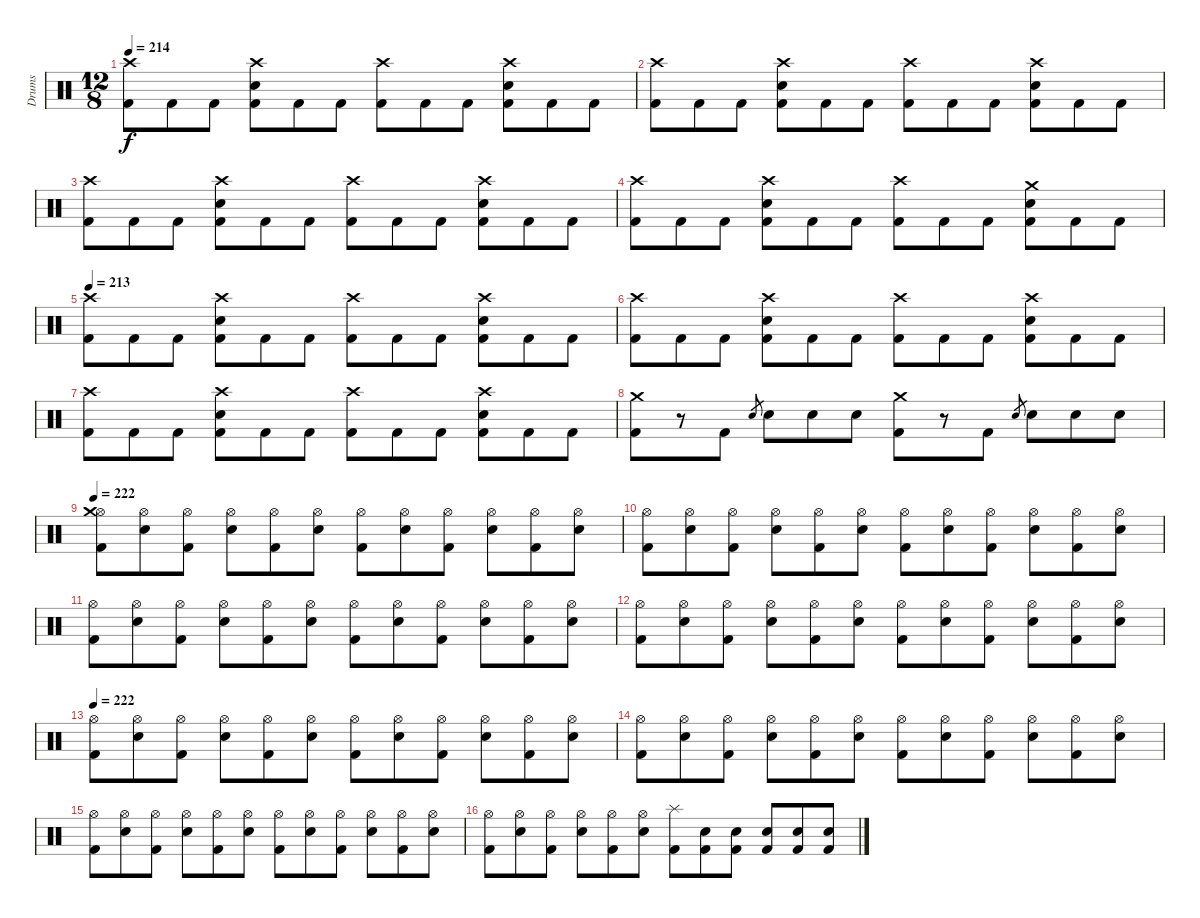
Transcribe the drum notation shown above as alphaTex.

\track ("Drums" "Drums") {instrument percussion}
\staff {score}
\articulation defaults
\ts (12 8)
\tempo 214
\clef neutral
\ks c
("Crash high (hit)" "Kick (hit) 2").8{dy f} "Kick (hit) 2".8 "Kick (hit) 2".8 ("Crash high (hit)" "Snare (hit) 2" "Kick (hit) 2").8 "Kick (hit) 2".8 "Kick (hit) 2".8 ("Crash high (hit)" "Kick (hit) 2").8 "Kick (hit) 2".8 "Kick (hit) 2".8 ("Crash high (hit)" "Snare (hit) 2" "Kick (hit) 2").8 "Kick (hit) 2".8 "Kick (hit) 2".8 |
("Crash high (hit)" "Kick (hit) 2").8 "Kick (hit) 2".8 "Kick (hit) 2".8 ("Crash high (hit)" "Snare (hit) 2" "Kick (hit) 2").8 "Kick (hit) 2".8 "Kick (hit) 2".8 ("Crash high (hit)" "Kick (hit) 2").8 "Kick (hit) 2".8 "Kick (hit) 2".8 ("Crash high (hit)" "Snare (hit) 2" "Kick (hit) 2").8 "Kick (hit) 2".8 "Kick (hit) 2".8 |
("Crash high (hit)" "Kick (hit) 2").8 "Kick (hit) 2".8 "Kick (hit) 2".8 ("Crash high (hit)" "Snare (hit) 2" "Kick (hit) 2").8 "Kick (hit) 2".8 "Kick (hit) 2".8 ("Crash high (hit)" "Kick (hit) 2").8 "Kick (hit) 2".8 "Kick (hit) 2".8 ("Crash high (hit)" "Snare (hit) 2" "Kick (hit) 2").8 "Kick (hit) 2".8 "Kick (hit) 2".8 |
("Crash high (hit)" "Kick (hit) 2").8 "Kick (hit) 2".8 "Kick (hit) 2".8 ("Crash high (hit)" "Snare (hit) 2" "Kick (hit) 2").8 "Kick (hit) 2".8 "Kick (hit) 2".8 ("Crash high (hit)" "Kick (hit) 2").8 "Kick (hit) 2".8 "Kick (hit) 2".8 ("Crash medium (hit)" "Snare (hit) 2" "Kick (hit) 2").8 "Kick (hit) 2".8 "Kick (hit) 2".8 |
\tempo 213
("Crash high (hit)" "Kick (hit) 2").8 "Kick (hit) 2".8 "Kick (hit) 2".8 ("Crash high (hit)" "Snare (hit) 2" "Kick (hit) 2").8 "Kick (hit) 2".8 "Kick (hit) 2".8 ("Crash high (hit)" "Kick (hit) 2").8 "Kick (hit) 2".8 "Kick (hit) 2".8 ("Crash high (hit)" "Snare (hit) 2" "Kick (hit) 2").8 "Kick (hit) 2".8 "Kick (hit) 2".8 |
("Crash high (hit)" "Kick (hit) 2").8 "Kick (hit) 2".8 "Kick (hit) 2".8 ("Crash high (hit)" "Snare (hit) 2" "Kick (hit) 2").8 "Kick (hit) 2".8 "Kick (hit) 2".8 ("Crash high (hit)" "Kick (hit) 2").8 "Kick (hit) 2".8 "Kick (hit) 2".8 ("Crash high (hit)" "Snare (hit) 2" "Kick (hit) 2").8 "Kick (hit) 2".8 "Kick (hit) 2".8 |
("Crash high (hit)" "Kick (hit) 2").8 "Kick (hit) 2".8 "Kick (hit) 2".8 ("Crash high (hit)" "Snare (hit) 2" "Kick (hit) 2").8 "Kick (hit) 2".8 "Kick (hit) 2".8 ("Crash high (hit)" "Kick (hit) 2").8 "Kick (hit) 2".8 "Kick (hit) 2".8 ("Crash high (hit)" "Snare (hit) 2" "Kick (hit) 2").8 "Kick (hit) 2".8 "Kick (hit) 2".8 |
("Crash medium (hit)" "Kick (hit) 2").8 r.8 "Kick (hit) 2".8 "Snare (hit) 2".8{gr} "Snare (hit) 2".8 "Snare (hit) 2".8 "Snare (hit) 2".8 ("Crash medium (hit)" "Kick (hit) 2").8 r.8 "Kick (hit) 2".8 "Snare (hit) 2".8{gr} "Snare (hit) 2".8 "Snare (hit) 2".8 "Snare (hit) 2".8 |
\tempo 222
("Hi-Hat (open)" "Crash medium (hit)" "Kick (hit) 2").8 ("Hi-Hat (open)" "Snare (hit) 2").8 ("Hi-Hat (open)" "Kick (hit) 2").8 ("Hi-Hat (open)" "Snare (hit) 2").8 ("Hi-Hat (open)" "Kick (hit) 2").8 ("Hi-Hat (open)" "Snare (hit) 2").8 ("Hi-Hat (open)" "Kick (hit) 2").8 ("Hi-Hat (open)" "Snare (hit) 2").8 ("Hi-Hat (open)" "Kick (hit) 2").8 ("Hi-Hat (open)" "Snare (hit) 2").8 ("Hi-Hat (open)" "Kick (hit) 2").8 ("Hi-Hat (open)" "Snare (hit) 2").8 |
("Hi-Hat (open)" "Kick (hit) 2").8 ("Hi-Hat (open)" "Snare (hit) 2").8 ("Hi-Hat (open)" "Kick (hit) 2").8 ("Hi-Hat (open)" "Snare (hit) 2").8 ("Hi-Hat (open)" "Kick (hit) 2").8 ("Hi-Hat (open)" "Snare (hit) 2").8 ("Hi-Hat (open)" "Kick (hit) 2").8 ("Hi-Hat (open)" "Snare (hit) 2").8 ("Hi-Hat (open)" "Kick (hit) 2").8 ("Hi-Hat (open)" "Snare (hit) 2").8 ("Hi-Hat (open)" "Kick (hit) 2").8 ("Hi-Hat (open)" "Snare (hit) 2").8 |
("Hi-Hat (open)" "Kick (hit) 2").8 ("Hi-Hat (open)" "Snare (hit) 2").8 ("Hi-Hat (open)" "Kick (hit) 2").8 ("Hi-Hat (open)" "Snare (hit) 2").8 ("Hi-Hat (open)" "Kick (hit) 2").8 ("Hi-Hat (open)" "Snare (hit) 2").8 ("Hi-Hat (open)" "Kick (hit) 2").8 ("Hi-Hat (open)" "Snare (hit) 2").8 ("Hi-Hat (open)" "Kick (hit) 2").8 ("Hi-Hat (open)" "Snare (hit) 2").8 ("Hi-Hat (open)" "Kick (hit) 2").8 ("Hi-Hat (open)" "Snare (hit) 2").8 |
("Hi-Hat (open)" "Kick (hit) 2").8 ("Hi-Hat (open)" "Snare (hit) 2").8 ("Hi-Hat (open)" "Kick (hit) 2").8 ("Hi-Hat (open)" "Snare (hit) 2").8 ("Hi-Hat (open)" "Kick (hit) 2").8 ("Hi-Hat (open)" "Snare (hit) 2").8 ("Hi-Hat (open)" "Kick (hit) 2").8 ("Hi-Hat (open)" "Snare (hit) 2").8 ("Hi-Hat (open)" "Kick (hit) 2").8 ("Hi-Hat (open)" "Snare (hit) 2").8 ("Hi-Hat (open)" "Kick (hit) 2").8 ("Hi-Hat (open)" "Snare (hit) 2").8 |
\tempo 222
("Hi-Hat (open)" "Kick (hit) 2").8 ("Hi-Hat (open)" "Snare (hit) 2").8 ("Hi-Hat (open)" "Kick (hit) 2").8 ("Hi-Hat (open)" "Snare (hit) 2").8 ("Hi-Hat (open)" "Kick (hit) 2").8 ("Hi-Hat (open)" "Snare (hit) 2").8 ("Hi-Hat (open)" "Kick (hit) 2").8 ("Hi-Hat (open)" "Snare (hit) 2").8 ("Hi-Hat (open)" "Kick (hit) 2").8 ("Hi-Hat (open)" "Snare (hit) 2").8 ("Hi-Hat (open)" "Kick (hit) 2").8 ("Hi-Hat (open)" "Snare (hit) 2").8 |
("Hi-Hat (open)" "Kick (hit) 2").8 ("Hi-Hat (open)" "Snare (hit) 2").8 ("Hi-Hat (open)" "Kick (hit) 2").8 ("Hi-Hat (open)" "Snare (hit) 2").8 ("Hi-Hat (open)" "Kick (hit) 2").8 ("Hi-Hat (open)" "Snare (hit) 2").8 ("Hi-Hat (open)" "Kick (hit) 2").8 ("Hi-Hat (open)" "Snare (hit) 2").8 ("Hi-Hat (open)" "Kick (hit) 2").8 ("Hi-Hat (open)" "Snare (hit) 2").8 ("Hi-Hat (open)" "Kick (hit) 2").8 ("Hi-Hat (open)" "Snare (hit) 2").8 |
("Hi-Hat (open)" "Kick (hit) 2").8 ("Hi-Hat (open)" "Snare (hit) 2").8 ("Hi-Hat (open)" "Kick (hit) 2").8 ("Hi-Hat (open)" "Snare (hit) 2").8 ("Hi-Hat (open)" "Kick (hit) 2").8 ("Hi-Hat (open)" "Snare (hit) 2").8 ("Hi-Hat (open)" "Kick (hit) 2").8 ("Hi-Hat (open)" "Snare (hit) 2").8 ("Hi-Hat (open)" "Kick (hit) 2").8 ("Hi-Hat (open)" "Snare (hit) 2").8 ("Hi-Hat (open)" "Kick (hit) 2").8 ("Hi-Hat (open)" "Snare (hit) 2").8 |
("Hi-Hat (open)" "Kick (hit) 2").8 ("Hi-Hat (open)" "Snare (hit) 2").8 ("Hi-Hat (open)" "Kick (hit) 2").8 ("Hi-Hat (open)" "Snare (hit) 2").8 ("Hi-Hat (open)" "Kick (hit) 2").8 ("Hi-Hat (open)" "Snare (hit) 2").8 ("Splash (hit)" "Kick (hit) 2").8 ("Snare (hit) 2" "Kick (hit) 2").8 ("Snare (hit) 2" "Kick (hit) 2").8 ("Snare (hit) 2" "Kick (hit) 2").8 ("Snare (hit) 2" "Kick (hit) 2").8 ("Snare (hit) 2" "Kick (hit) 2").8
